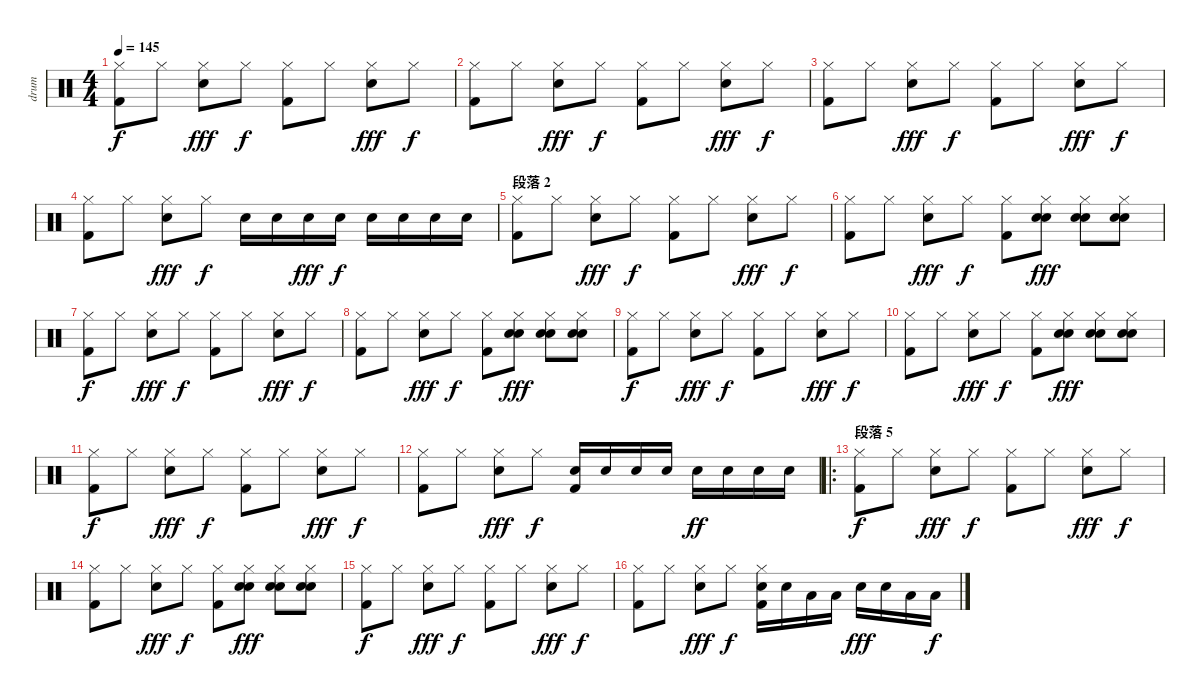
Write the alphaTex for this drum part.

\track ("drum" "drum") {instrument percussion}
\staff {score}
\articulation defaults
\ts (4 4)
\tempo 145
\clef neutral
\ks c
("Hi-Hat (closed)" "Kick (hit) 2").8{dy f} "Hi-Hat (closed)".8 ("Hi-Hat (closed)" "Electric Snare (hit)").8{dy fff} "Hi-Hat (closed)".8{dy f} ("Hi-Hat (closed)" "Kick (hit) 2").8 "Hi-Hat (closed)".8 ("Hi-Hat (closed)" "Electric Snare (hit)").8{dy fff} "Hi-Hat (closed)".8{dy f} |
("Hi-Hat (closed)" "Kick (hit) 2").8 "Hi-Hat (closed)".8 ("Hi-Hat (closed)" "Electric Snare (hit)").8{dy fff} "Hi-Hat (closed)".8{dy f} ("Hi-Hat (closed)" "Kick (hit) 2").8 "Hi-Hat (closed)".8 ("Hi-Hat (closed)" "Electric Snare (hit)").8{dy fff} "Hi-Hat (closed)".8{dy f} |
("Hi-Hat (closed)" "Kick (hit) 2").8 "Hi-Hat (closed)".8 ("Hi-Hat (closed)" "Electric Snare (hit)").8{dy fff} "Hi-Hat (closed)".8{dy f} ("Hi-Hat (closed)" "Kick (hit) 2").8 "Hi-Hat (closed)".8 ("Hi-Hat (closed)" "Electric Snare (hit)").8{dy fff} "Hi-Hat (closed)".8{dy f} |
("Hi-Hat (closed)" "Kick (hit) 2").8 "Hi-Hat (closed)".8 ("Hi-Hat (closed)" "Electric Snare (hit)").8{dy fff} "Hi-Hat (closed)".8{dy f} "Electric Snare (hit)".16 "Electric Snare (hit)".16 "Electric Snare (hit)".16{dy fff} "Electric Snare (hit)".16{dy f} "Electric Snare (hit)".16 "Electric Snare (hit)".16 "Electric Snare (hit)".16 "Electric Snare (hit)".16 |
\section ("" "段落 2")
("Hi-Hat (closed)" "Kick (hit) 2").8 "Hi-Hat (closed)".8 ("Hi-Hat (closed)" "Electric Snare (hit)").8{dy fff} "Hi-Hat (closed)".8{dy f} ("Hi-Hat (closed)" "Kick (hit) 2").8 "Hi-Hat (closed)".8 ("Hi-Hat (closed)" "Electric Snare (hit)").8{dy fff} "Hi-Hat (closed)".8{dy f} |
("Hi-Hat (closed)" "Kick (hit) 2").8 "Hi-Hat (closed)".8 ("Hi-Hat (closed)" "Electric Snare (hit)").8{dy fff} "Hi-Hat (closed)".8{dy f} ("Hi-Hat (closed)" "Kick (hit) 2").8 ("Hi-Hat (closed)" "Electric Snare (hit)" "Electric Snare (hit)").8{dy fff} ("Hi-Hat (closed)" "Electric Snare (hit)" "Electric Snare (hit)").8 ("Hi-Hat (closed)" "Electric Snare (hit)" "Electric Snare (hit)").8 |
("Hi-Hat (closed)" "Kick (hit) 2").8{dy f} "Hi-Hat (closed)".8 ("Hi-Hat (closed)" "Electric Snare (hit)").8{dy fff} "Hi-Hat (closed)".8{dy f} ("Hi-Hat (closed)" "Kick (hit) 2").8 "Hi-Hat (closed)".8 ("Hi-Hat (closed)" "Electric Snare (hit)").8{dy fff} "Hi-Hat (closed)".8{dy f} |
("Hi-Hat (closed)" "Kick (hit) 2").8 "Hi-Hat (closed)".8 ("Hi-Hat (closed)" "Electric Snare (hit)").8{dy fff} "Hi-Hat (closed)".8{dy f} ("Hi-Hat (closed)" "Kick (hit) 2").8 ("Hi-Hat (closed)" "Electric Snare (hit)" "Electric Snare (hit)").8{dy fff} ("Hi-Hat (closed)" "Electric Snare (hit)" "Electric Snare (hit)").8 ("Hi-Hat (closed)" "Electric Snare (hit)" "Electric Snare (hit)").8 |
("Hi-Hat (closed)" "Kick (hit) 2").8{dy f} "Hi-Hat (closed)".8 ("Hi-Hat (closed)" "Electric Snare (hit)").8{dy fff} "Hi-Hat (closed)".8{dy f} ("Hi-Hat (closed)" "Kick (hit) 2").8 "Hi-Hat (closed)".8 ("Hi-Hat (closed)" "Electric Snare (hit)").8{dy fff} "Hi-Hat (closed)".8{dy f} |
("Hi-Hat (closed)" "Kick (hit) 2").8 "Hi-Hat (closed)".8 ("Hi-Hat (closed)" "Electric Snare (hit)").8{dy fff} "Hi-Hat (closed)".8{dy f} ("Hi-Hat (closed)" "Kick (hit) 2").8 ("Hi-Hat (closed)" "Electric Snare (hit)" "Electric Snare (hit)").8{dy fff} ("Hi-Hat (closed)" "Electric Snare (hit)" "Electric Snare (hit)").8 ("Hi-Hat (closed)" "Electric Snare (hit)" "Electric Snare (hit)").8 |
("Hi-Hat (closed)" "Kick (hit) 2").8{dy f} "Hi-Hat (closed)".8 ("Hi-Hat (closed)" "Electric Snare (hit)").8{dy fff} "Hi-Hat (closed)".8{dy f} ("Hi-Hat (closed)" "Kick (hit) 2").8 "Hi-Hat (closed)".8 ("Hi-Hat (closed)" "Electric Snare (hit)").8{dy fff} "Hi-Hat (closed)".8{dy f} |
("Hi-Hat (closed)" "Kick (hit) 2").8 "Hi-Hat (closed)".8 ("Hi-Hat (closed)" "Electric Snare (hit)").8{dy fff} "Hi-Hat (closed)".8{dy f} ("Electric Snare (hit)" "Kick (hit) 2").16 "Electric Snare (hit)".16 "Electric Snare (hit)".16 "Electric Snare (hit)".16 "Electric Snare (hit)".16{dy ff} "Electric Snare (hit)".16 "Electric Snare (hit)".16 "Electric Snare (hit)".16 |
\ro
\section ("" "段落 5")
("Hi-Hat (closed)" "Kick (hit) 2").8{dy f} "Hi-Hat (closed)".8 ("Hi-Hat (closed)" "Electric Snare (hit)").8{dy fff} "Hi-Hat (closed)".8{dy f} ("Hi-Hat (closed)" "Kick (hit) 2").8 "Hi-Hat (closed)".8 ("Hi-Hat (closed)" "Electric Snare (hit)").8{dy fff} "Hi-Hat (closed)".8{dy f} |
("Hi-Hat (closed)" "Kick (hit) 2").8 "Hi-Hat (closed)".8 ("Hi-Hat (closed)" "Electric Snare (hit)").8{dy fff} "Hi-Hat (closed)".8{dy f} ("Hi-Hat (closed)" "Kick (hit) 2").8 ("Hi-Hat (closed)" "Electric Snare (hit)" "Electric Snare (hit)").8{dy fff} ("Hi-Hat (closed)" "Electric Snare (hit)" "Electric Snare (hit)").8 ("Hi-Hat (closed)" "Electric Snare (hit)" "Electric Snare (hit)").8 |
("Hi-Hat (closed)" "Kick (hit) 2").8{dy f} "Hi-Hat (closed)".8 ("Hi-Hat (closed)" "Electric Snare (hit)").8{dy fff} "Hi-Hat (closed)".8{dy f} ("Hi-Hat (closed)" "Kick (hit) 2").8 "Hi-Hat (closed)".8 ("Hi-Hat (closed)" "Electric Snare (hit)").8{dy fff} "Hi-Hat (closed)".8{dy f} |
("Hi-Hat (closed)" "Kick (hit) 2").8 "Hi-Hat (closed)".8 ("Hi-Hat (closed)" "Electric Snare (hit)").8{dy fff} "Hi-Hat (closed)".8{dy f} ("Hi-Hat (closed)" "Electric Snare (hit)" "Kick (hit) 2").16 "Electric Snare (hit)".16 "Low Tom (hit)".16 "Low Tom (hit)".16 "Electric Snare (hit)".16{dy fff} "Electric Snare (hit)".16 "Low Tom (hit)".16 "Low Tom (hit)".16{dy f}
